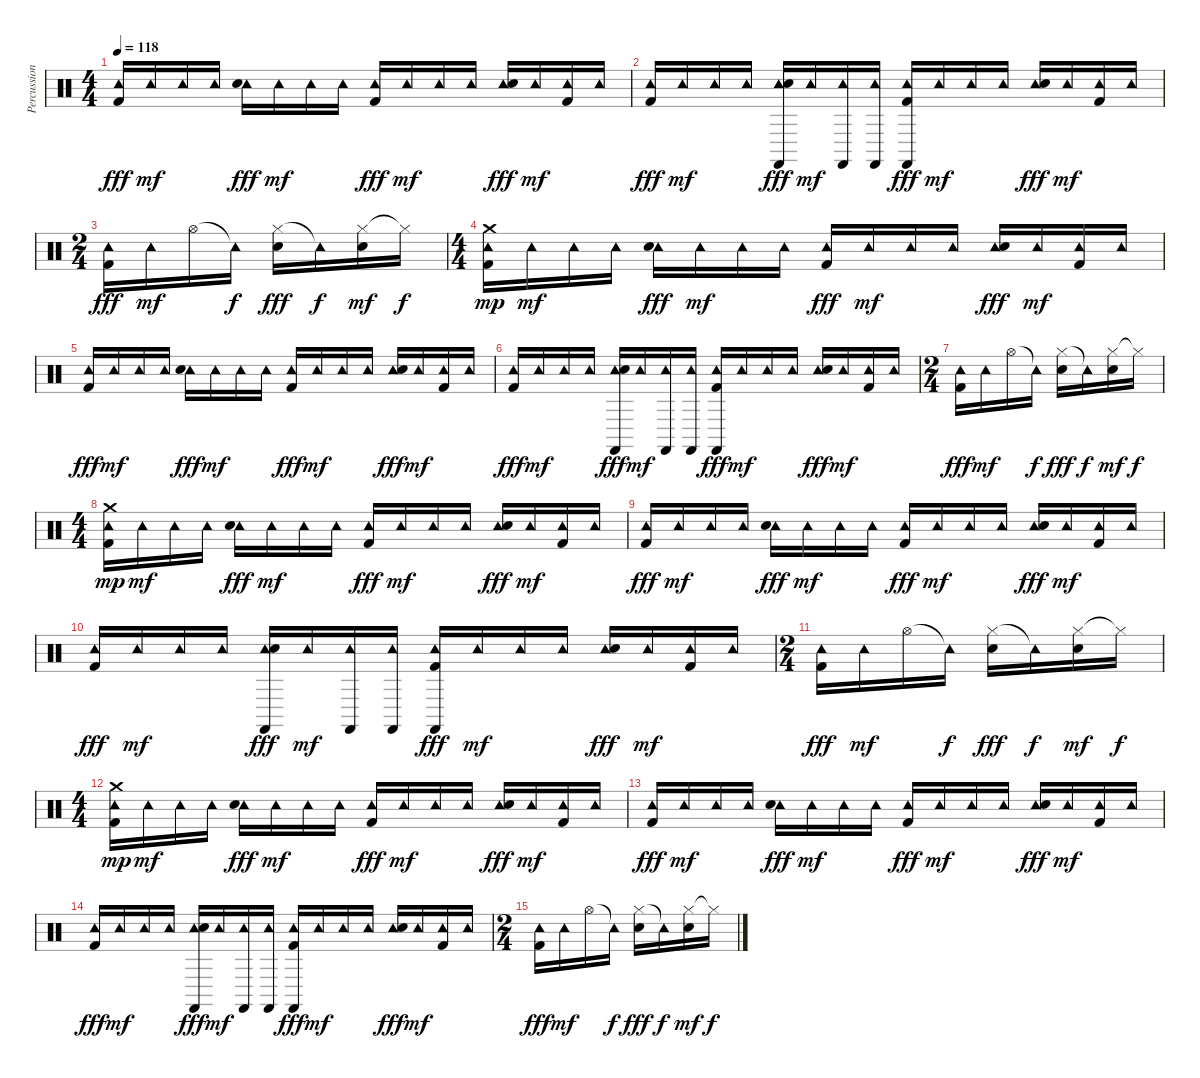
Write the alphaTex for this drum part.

\track ("Percussion" "Percussion") {instrument percussion}
\staff {score}
\articulation defaults
\ts (4 4)
\tempo 118
\clef neutral
\ks c
("Tambourine (hit)" "Kick (hit) 2").16{dy fff} "Tambourine (hit)".16{dy mf} "Tambourine (hit)".16 "Tambourine (hit)".16 ("Tambourine (hit)" "Electric Snare (hit)").16{dy fff} "Tambourine (hit)".16{dy mf volume 12} "Tambourine (hit)".16 "Tambourine (hit)".16 ("Tambourine (hit)" "Kick (hit) 2").16{dy fff} "Tambourine (hit)".16{dy mf} "Tambourine (hit)".16 "Tambourine (hit)".16 ("Tambourine (hit)" "Electric Snare (hit)").16{dy fff} "Tambourine (hit)".16{dy mf} ("Tambourine (hit)" "Kick (hit) 2").16 "Tambourine (hit)".16 |
("Tambourine (hit)" "Kick (hit) 2").16{dy fff} "Tambourine (hit)".16{dy mf} "Tambourine (hit)".16 "Tambourine (hit)".16 ("Tambourine (hit)" "Electric Snare (hit)" "Castanets (hit)").16{dy fff} "Tambourine (hit)".16{dy mf} ("Tambourine (hit)" "Castanets (hit)").16 ("Tambourine (hit)" "Castanets (hit)").16 ("Tambourine (hit)" "Kick (hit) 2" "Castanets (hit)").16{dy fff} "Tambourine (hit)".16{dy mf} "Tambourine (hit)".16 "Tambourine (hit)".16 ("Tambourine (hit)" "Electric Snare (hit)").16{dy fff} "Tambourine (hit)".16{dy mf} ("Tambourine (hit)" "Kick (hit) 2").16 "Tambourine (hit)".16 |
\ts (2 4)
("Tambourine (hit)" "Kick (hit) 2").16{dy fff} "Tambourine (hit)".16{dy mf} "Hi-Hat (open)".16 "Tambourine (hit)"{t}.16{dy f} ("Hi-Hat (closed)" "Electric Snare (hit)").16{dy fff} "Tambourine (hit)"{t}.16{dy f} ("Hi-Hat (closed)" "Electric Snare (hit)").16{dy mf} "Hi-Hat (closed)"{t}.16{dy f} |
\ts (4 4)
("Tambourine (hit)" "Kick (hit) 2" "Crash medium (hit)").16{dy mp} "Tambourine (hit)".16{dy mf} "Tambourine (hit)".16 "Tambourine (hit)".16 ("Tambourine (hit)" "Electric Snare (hit)").16{dy fff} "Tambourine (hit)".16{dy mf} "Tambourine (hit)".16 "Tambourine (hit)".16 ("Tambourine (hit)" "Kick (hit) 2").16{dy fff} "Tambourine (hit)".16{dy mf} "Tambourine (hit)".16 "Tambourine (hit)".16 ("Tambourine (hit)" "Electric Snare (hit)").16{dy fff} "Tambourine (hit)".16{dy mf} ("Tambourine (hit)" "Kick (hit) 2").16 "Tambourine (hit)".16 |
("Tambourine (hit)" "Kick (hit) 2").16{dy fff} "Tambourine (hit)".16{dy mf} "Tambourine (hit)".16 "Tambourine (hit)".16 ("Tambourine (hit)" "Electric Snare (hit)").16{dy fff} "Tambourine (hit)".16{dy mf volume 10} "Tambourine (hit)".16 "Tambourine (hit)".16 ("Tambourine (hit)" "Kick (hit) 2").16{dy fff} "Tambourine (hit)".16{dy mf} "Tambourine (hit)".16 "Tambourine (hit)".16 ("Tambourine (hit)" "Electric Snare (hit)").16{dy fff} "Tambourine (hit)".16{dy mf} ("Tambourine (hit)" "Kick (hit) 2").16 "Tambourine (hit)".16 |
("Tambourine (hit)" "Kick (hit) 2").16{dy fff} "Tambourine (hit)".16{dy mf} "Tambourine (hit)".16 "Tambourine (hit)".16 ("Tambourine (hit)" "Electric Snare (hit)" "Castanets (hit)").16{dy fff} "Tambourine (hit)".16{dy mf} ("Tambourine (hit)" "Castanets (hit)").16 ("Tambourine (hit)" "Castanets (hit)").16 ("Tambourine (hit)" "Kick (hit) 2" "Castanets (hit)").16{dy fff} "Tambourine (hit)".16{dy mf} "Tambourine (hit)".16 "Tambourine (hit)".16 ("Tambourine (hit)" "Electric Snare (hit)").16{dy fff} "Tambourine (hit)".16{dy mf} ("Tambourine (hit)" "Kick (hit) 2").16 "Tambourine (hit)".16 |
\ts (2 4)
("Tambourine (hit)" "Kick (hit) 2").16{dy fff} "Tambourine (hit)".16{dy mf} "Hi-Hat (open)".16 "Tambourine (hit)"{t}.16{dy f} ("Hi-Hat (closed)" "Electric Snare (hit)").16{dy fff} "Tambourine (hit)"{t}.16{dy f} ("Hi-Hat (closed)" "Electric Snare (hit)").16{dy mf} "Hi-Hat (closed)"{t}.16{dy f} |
\ts (4 4)
("Tambourine (hit)" "Kick (hit) 2" "Crash medium (hit)").16{dy mp} "Tambourine (hit)".16{dy mf} "Tambourine (hit)".16 "Tambourine (hit)".16 ("Tambourine (hit)" "Electric Snare (hit)").16{dy fff} "Tambourine (hit)".16{dy mf} "Tambourine (hit)".16 "Tambourine (hit)".16 ("Tambourine (hit)" "Kick (hit) 2").16{dy fff} "Tambourine (hit)".16{dy mf} "Tambourine (hit)".16 "Tambourine (hit)".16 ("Tambourine (hit)" "Electric Snare (hit)").16{dy fff} "Tambourine (hit)".16{dy mf} ("Tambourine (hit)" "Kick (hit) 2").16 "Tambourine (hit)".16 |
("Tambourine (hit)" "Kick (hit) 2").16{dy fff} "Tambourine (hit)".16{dy mf} "Tambourine (hit)".16 "Tambourine (hit)".16 ("Tambourine (hit)" "Electric Snare (hit)").16{dy fff} "Tambourine (hit)".16{dy mf volume 7} "Tambourine (hit)".16 "Tambourine (hit)".16 ("Tambourine (hit)" "Kick (hit) 2").16{dy fff} "Tambourine (hit)".16{dy mf} "Tambourine (hit)".16 "Tambourine (hit)".16 ("Tambourine (hit)" "Electric Snare (hit)").16{dy fff} "Tambourine (hit)".16{dy mf} ("Tambourine (hit)" "Kick (hit) 2").16 "Tambourine (hit)".16 |
("Tambourine (hit)" "Kick (hit) 2").16{dy fff} "Tambourine (hit)".16{dy mf} "Tambourine (hit)".16 "Tambourine (hit)".16 ("Tambourine (hit)" "Electric Snare (hit)" "Castanets (hit)").16{dy fff} "Tambourine (hit)".16{dy mf} ("Tambourine (hit)" "Castanets (hit)").16 ("Tambourine (hit)" "Castanets (hit)").16 ("Tambourine (hit)" "Kick (hit) 2" "Castanets (hit)").16{dy fff} "Tambourine (hit)".16{dy mf} "Tambourine (hit)".16 "Tambourine (hit)".16 ("Tambourine (hit)" "Electric Snare (hit)").16{dy fff} "Tambourine (hit)".16{dy mf} ("Tambourine (hit)" "Kick (hit) 2").16 "Tambourine (hit)".16 |
\ts (2 4)
("Tambourine (hit)" "Kick (hit) 2").16{dy fff} "Tambourine (hit)".16{dy mf} "Hi-Hat (open)".16 "Tambourine (hit)"{t}.16{dy f} ("Hi-Hat (closed)" "Electric Snare (hit)").16{dy fff} "Tambourine (hit)"{t}.16{dy f} ("Hi-Hat (closed)" "Electric Snare (hit)").16{dy mf} "Hi-Hat (closed)"{t}.16{dy f} |
\ts (4 4)
("Tambourine (hit)" "Kick (hit) 2" "Crash medium (hit)").16{dy mp} "Tambourine (hit)".16{dy mf} "Tambourine (hit)".16 "Tambourine (hit)".16 ("Tambourine (hit)" "Electric Snare (hit)").16{dy fff} "Tambourine (hit)".16{dy mf} "Tambourine (hit)".16 "Tambourine (hit)".16 ("Tambourine (hit)" "Kick (hit) 2").16{dy fff} "Tambourine (hit)".16{dy mf} "Tambourine (hit)".16 "Tambourine (hit)".16 ("Tambourine (hit)" "Electric Snare (hit)").16{dy fff} "Tambourine (hit)".16{dy mf} ("Tambourine (hit)" "Kick (hit) 2").16 "Tambourine (hit)".16 |
("Tambourine (hit)" "Kick (hit) 2").16{dy fff} "Tambourine (hit)".16{dy mf} "Tambourine (hit)".16 "Tambourine (hit)".16 ("Tambourine (hit)" "Electric Snare (hit)").16{dy fff} "Tambourine (hit)".16{dy mf volume 4} "Tambourine (hit)".16 "Tambourine (hit)".16 ("Tambourine (hit)" "Kick (hit) 2").16{dy fff} "Tambourine (hit)".16{dy mf} "Tambourine (hit)".16 "Tambourine (hit)".16 ("Tambourine (hit)" "Electric Snare (hit)").16{dy fff} "Tambourine (hit)".16{dy mf} ("Tambourine (hit)" "Kick (hit) 2").16 "Tambourine (hit)".16 |
("Tambourine (hit)" "Kick (hit) 2").16{dy fff volume 2} "Tambourine (hit)".16{dy mf} "Tambourine (hit)".16 "Tambourine (hit)".16 ("Tambourine (hit)" "Electric Snare (hit)" "Castanets (hit)").16{dy fff} "Tambourine (hit)".16{dy mf} ("Tambourine (hit)" "Castanets (hit)").16 ("Tambourine (hit)" "Castanets (hit)").16 ("Tambourine (hit)" "Kick (hit) 2" "Castanets (hit)").16{dy fff} "Tambourine (hit)".16{dy mf} "Tambourine (hit)".16 "Tambourine (hit)".16 ("Tambourine (hit)" "Electric Snare (hit)").16{dy fff volume 1} "Tambourine (hit)".16{dy mf} ("Tambourine (hit)" "Kick (hit) 2").16 "Tambourine (hit)".16 |
\ts (2 4)
("Tambourine (hit)" "Kick (hit) 2").16{dy fff} "Tambourine (hit)".16{dy mf volume 1} "Hi-Hat (open)".16 "Tambourine (hit)"{t}.16{dy f} ("Hi-Hat (closed)" "Electric Snare (hit)").16{dy fff} "Tambourine (hit)"{t}.16{dy f} ("Hi-Hat (closed)" "Electric Snare (hit)").16{dy mf} "Hi-Hat (closed)"{t}.16{dy f}
